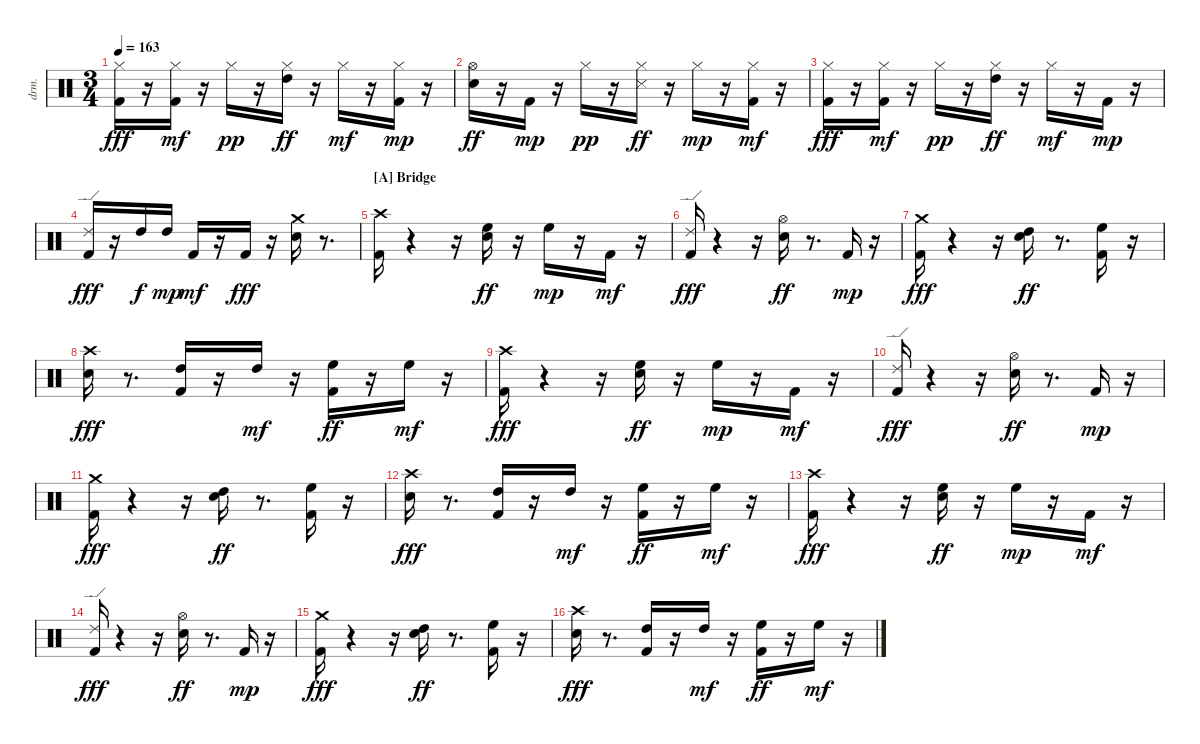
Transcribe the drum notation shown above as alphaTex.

\bracketExtendMode nobrackets
\track ("EZdrummer 3" "drm.") {instrument percussion}
\staff {score}
\articulation defaults
\ts (3 4)
\tempo 163
\clef neutral
\ks aminor
("Kick (hit) 2" "Hi-Hat (closed)"{acc #}).16{dy fff} r.16 ("Kick (hit) 2" "Hi-Hat (closed)"{acc #}).16{dy mf} r.16 "Hi-Hat (closed)"{acc #}.16{dy pp} r.16 ("Hi-Hat (closed)"{acc #} "High Tom (hit)").16{dy ff} r.16 "Hi-Hat (closed)"{acc #}.16{dy mf} r.16 ("Kick (hit) 2" "Hi-Hat (closed)"{acc #}).16{dy mp} r.16 |
("Snare (hit) 2" "Hi-Hat (open)"{acc #}).16{dy ff} r.16 "Kick (hit) 2".16{dy mp} r.16 "Hi-Hat (closed)"{acc #}.16{dy pp} r.16 ("Snare (side stick) 3"{acc #} "Hi-Hat (closed)"{acc #}).16{dy ff} r.16 "Hi-Hat (closed)"{acc #}.16{dy mp} r.16 ("Kick (hit) 2" "Hi-Hat (closed)"{acc #}).16{dy mf} r.16 |
("Kick (hit) 2" "Hi-Hat (closed)"{acc #}).16{dy fff} r.16 ("Kick (hit) 2" "Hi-Hat (closed)"{acc #}).16{dy mf} r.16 "Hi-Hat (closed)"{acc #}.16{dy pp} r.16 ("Hi-Hat (closed)"{acc #} "High Tom (hit)").16{dy ff} r.16 "Hi-Hat (closed)"{acc #}.16{dy mf} r.16 "Kick (hit) 2".16{dy mp} r.16 |
("Kick (hit) 2" "Ride (edge) 2").16{dy fff} r.16 "High Tom (hit)".16{dy f} "High Tom (hit)".16{dy mp} "Kick (hit) 2".16{dy mf} r.16 "Kick (hit) 2".16{dy fff} r.16 ("Snare (hit) 2" "Crash medium (hit)").16 r.8{d} |
\section ("A" "Bridge")
("Kick (hit) 2" "Crash high (hit)"{acc #}).16 r.4 r.16 ("Snare (hit) 2" "High Floor Tom (hit)").16{dy ff} r.16 "High Floor Tom (hit)".16{dy mp} r.16 "Kick (hit) 2".16{dy mf} r.16 |
("Kick (hit) 2" "Ride (edge) 2").16{dy fff} r.4 r.16 ("Snare (hit) 2" "Hi-Hat (open)"{acc #}).16{dy ff} r.8{d} "Kick (hit) 2".16{dy mp} r.16 |
("Kick (hit) 2" "Crash medium (hit)").16{dy fff} r.4 r.16 ("Snare (hit) 2" "High Tom (hit)").16{dy ff} r.8{d} ("Kick (hit) 2" "High Floor Tom (hit)").16 r.16 |
("Snare (hit) 2" "Crash high (hit)"{acc #}).16{dy fff} r.8{d} ("Kick (hit) 2" "High Tom (hit)").16 r.16 "High Tom (hit)".16{dy mf} r.16 ("Kick (hit) 2" "High Floor Tom (hit)").16{dy ff} r.16 "High Floor Tom (hit)".16{dy mf} r.16 |
("Kick (hit) 2" "Crash high (hit)"{acc #}).16{dy fff} r.4 r.16 ("Snare (hit) 2" "High Floor Tom (hit)").16{dy ff} r.16 "High Floor Tom (hit)".16{dy mp} r.16 "Kick (hit) 2".16{dy mf} r.16 |
("Kick (hit) 2" "Ride (edge) 2").16{dy fff} r.4 r.16 ("Snare (hit) 2" "Hi-Hat (open)"{acc #}).16{dy ff} r.8{d} "Kick (hit) 2".16{dy mp} r.16 |
("Kick (hit) 2" "Crash medium (hit)").16{dy fff} r.4 r.16 ("Snare (hit) 2" "High Tom (hit)").16{dy ff} r.8{d} ("Kick (hit) 2" "High Floor Tom (hit)").16 r.16 |
("Snare (hit) 2" "Crash high (hit)"{acc #}).16{dy fff} r.8{d} ("Kick (hit) 2" "High Tom (hit)").16 r.16 "High Tom (hit)".16{dy mf} r.16 ("Kick (hit) 2" "High Floor Tom (hit)").16{dy ff} r.16 "High Floor Tom (hit)".16{dy mf} r.16 |
("Kick (hit) 2" "Crash high (hit)"{acc #}).16{dy fff} r.4 r.16 ("Snare (hit) 2" "High Floor Tom (hit)").16{dy ff} r.16 "High Floor Tom (hit)".16{dy mp} r.16 "Kick (hit) 2".16{dy mf} r.16 |
("Kick (hit) 2" "Ride (edge) 2").16{dy fff} r.4 r.16 ("Snare (hit) 2" "Hi-Hat (open)"{acc #}).16{dy ff} r.8{d} "Kick (hit) 2".16{dy mp} r.16 |
("Kick (hit) 2" "Crash medium (hit)").16{dy fff} r.4 r.16 ("Snare (hit) 2" "High Tom (hit)").16{dy ff} r.8{d} ("Kick (hit) 2" "High Floor Tom (hit)").16 r.16 |
("Snare (hit) 2" "Crash high (hit)"{acc #}).16{dy fff} r.8{d} ("Kick (hit) 2" "High Tom (hit)").16 r.16 "High Tom (hit)".16{dy mf} r.16 ("Kick (hit) 2" "High Floor Tom (hit)").16{dy ff} r.16 "High Floor Tom (hit)".16{dy mf} r.16
